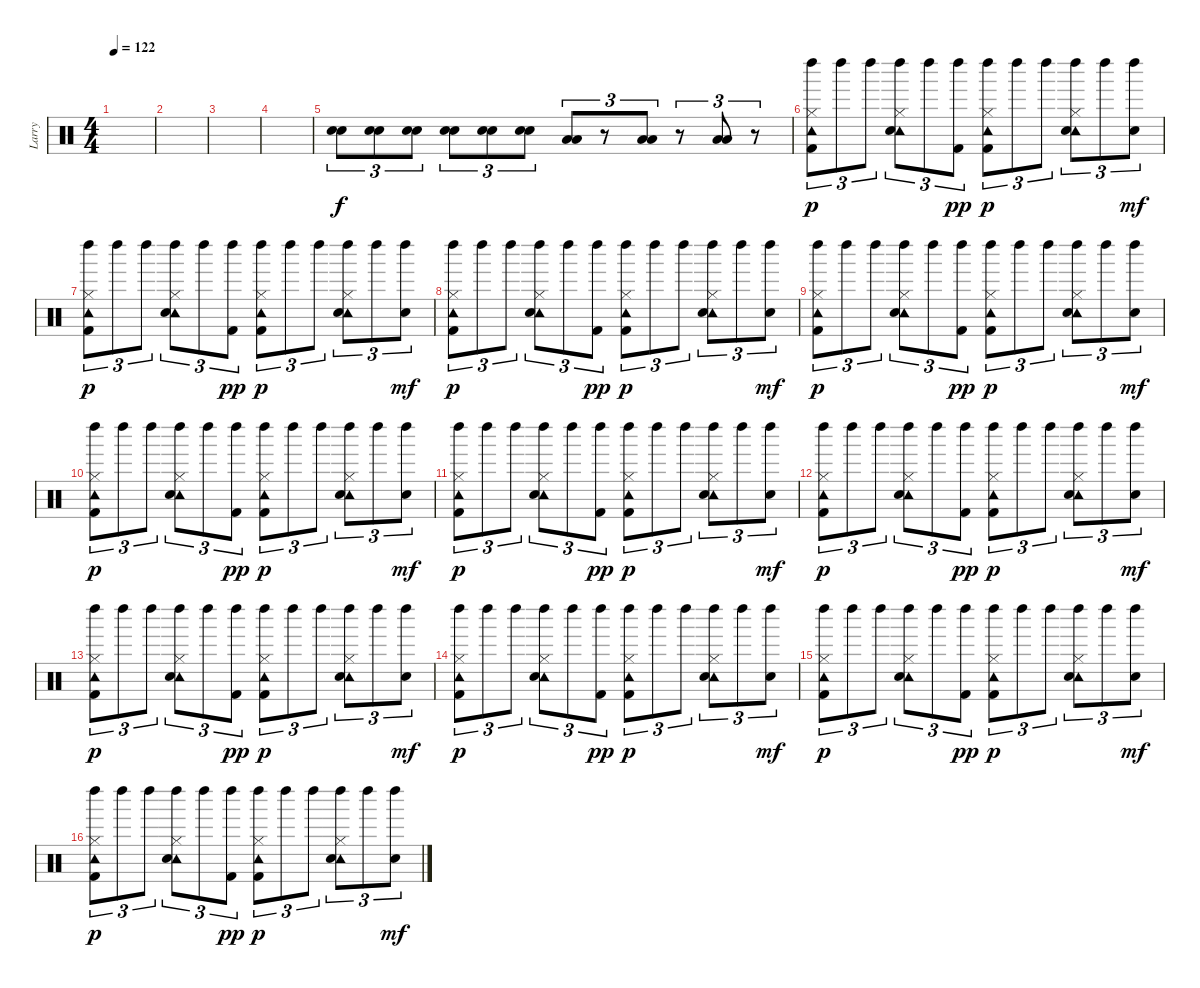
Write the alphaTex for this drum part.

\track ("Larry" "Larry") {instrument percussion}
\staff {score}
\articulation defaults
\ts (4 4)
\tempo 122
\clef neutral
\ks c
|
|
|
|
("Electric Snare (hit)" "Snare (hit) 2").8{tu (3 2) dy f volume 16} ("Electric Snare (hit)" "Snare (hit) 2").8{tu (3 2)} ("Electric Snare (hit)" "Snare (hit) 2").8{tu (3 2)} ("Electric Snare (hit)" "Snare (hit) 2").8{tu (3 2)} ("Electric Snare (hit)" "Snare (hit) 2").8{tu (3 2)} ("Electric Snare (hit)" "Snare (hit) 2").8{tu (3 2)} ("Low Tom (hit)" "Low Tom (hit)").8{tu (3 2)} r.8{tu (3 2)} ("Low Tom (hit)" "Low Tom (hit)").8{tu (3 2)} r.8{tu (3 2)} ("Low Tom (hit)" "Low Tom (hit)").8{tu (3 2)} r.8{tu (3 2)} |
("Left Maraca (hit)" "Tambourine (hit)" "Hi-Hat (closed)" "Kick (hit) 2").8{tu (3 2) dy p} "Left Maraca (hit)".8{tu (3 2)} "Left Maraca (hit)".8{tu (3 2)} ("Left Maraca (hit)" "Tambourine (hit)" "Hi-Hat (closed)" "Snare (hit) 2").8{tu (3 2)} "Left Maraca (hit)".8{tu (3 2)} ("Left Maraca (hit)" "Kick (hit) 2").8{tu (3 2) dy pp} ("Left Maraca (hit)" "Tambourine (hit)" "Hi-Hat (closed)" "Kick (hit) 2").8{tu (3 2) dy p} "Left Maraca (hit)".8{tu (3 2)} "Left Maraca (hit)".8{tu (3 2)} ("Left Maraca (hit)" "Tambourine (hit)" "Hi-Hat (closed)" "Snare (hit) 2").8{tu (3 2)} "Left Maraca (hit)".8{tu (3 2)} ("Left Maraca (hit)" "Snare (hit) 2").8{tu (3 2) dy mf} |
("Left Maraca (hit)" "Tambourine (hit)" "Hi-Hat (closed)" "Kick (hit) 2").8{tu (3 2) dy p} "Left Maraca (hit)".8{tu (3 2)} "Left Maraca (hit)".8{tu (3 2)} ("Left Maraca (hit)" "Tambourine (hit)" "Hi-Hat (closed)" "Snare (hit) 2").8{tu (3 2)} "Left Maraca (hit)".8{tu (3 2)} ("Left Maraca (hit)" "Kick (hit) 2").8{tu (3 2) dy pp} ("Left Maraca (hit)" "Tambourine (hit)" "Hi-Hat (closed)" "Kick (hit) 2").8{tu (3 2) dy p} "Left Maraca (hit)".8{tu (3 2)} "Left Maraca (hit)".8{tu (3 2)} ("Left Maraca (hit)" "Tambourine (hit)" "Hi-Hat (closed)" "Snare (hit) 2").8{tu (3 2)} "Left Maraca (hit)".8{tu (3 2)} ("Left Maraca (hit)" "Snare (hit) 2").8{tu (3 2) dy mf} |
("Left Maraca (hit)" "Tambourine (hit)" "Hi-Hat (closed)" "Kick (hit) 2").8{tu (3 2) dy p} "Left Maraca (hit)".8{tu (3 2)} "Left Maraca (hit)".8{tu (3 2)} ("Left Maraca (hit)" "Tambourine (hit)" "Hi-Hat (closed)" "Snare (hit) 2").8{tu (3 2)} "Left Maraca (hit)".8{tu (3 2)} ("Left Maraca (hit)" "Kick (hit) 2").8{tu (3 2) dy pp} ("Left Maraca (hit)" "Tambourine (hit)" "Hi-Hat (closed)" "Kick (hit) 2").8{tu (3 2) dy p} "Left Maraca (hit)".8{tu (3 2)} "Left Maraca (hit)".8{tu (3 2)} ("Left Maraca (hit)" "Tambourine (hit)" "Hi-Hat (closed)" "Snare (hit) 2").8{tu (3 2)} "Left Maraca (hit)".8{tu (3 2)} ("Left Maraca (hit)" "Snare (hit) 2").8{tu (3 2) dy mf} |
("Left Maraca (hit)" "Tambourine (hit)" "Hi-Hat (closed)" "Kick (hit) 2").8{tu (3 2) dy p} "Left Maraca (hit)".8{tu (3 2)} "Left Maraca (hit)".8{tu (3 2)} ("Left Maraca (hit)" "Tambourine (hit)" "Hi-Hat (closed)" "Snare (hit) 2").8{tu (3 2)} "Left Maraca (hit)".8{tu (3 2)} ("Left Maraca (hit)" "Kick (hit) 2").8{tu (3 2) dy pp} ("Left Maraca (hit)" "Tambourine (hit)" "Hi-Hat (closed)" "Kick (hit) 2").8{tu (3 2) dy p} "Left Maraca (hit)".8{tu (3 2)} "Left Maraca (hit)".8{tu (3 2)} ("Left Maraca (hit)" "Tambourine (hit)" "Hi-Hat (closed)" "Snare (hit) 2").8{tu (3 2)} "Left Maraca (hit)".8{tu (3 2)} ("Left Maraca (hit)" "Snare (hit) 2").8{tu (3 2) dy mf} |
("Left Maraca (hit)" "Tambourine (hit)" "Hi-Hat (closed)" "Kick (hit) 2").8{tu (3 2) dy p} "Left Maraca (hit)".8{tu (3 2)} "Left Maraca (hit)".8{tu (3 2)} ("Left Maraca (hit)" "Tambourine (hit)" "Hi-Hat (closed)" "Snare (hit) 2").8{tu (3 2)} "Left Maraca (hit)".8{tu (3 2)} ("Left Maraca (hit)" "Kick (hit) 2").8{tu (3 2) dy pp} ("Left Maraca (hit)" "Tambourine (hit)" "Hi-Hat (closed)" "Kick (hit) 2").8{tu (3 2) dy p} "Left Maraca (hit)".8{tu (3 2)} "Left Maraca (hit)".8{tu (3 2)} ("Left Maraca (hit)" "Tambourine (hit)" "Hi-Hat (closed)" "Snare (hit) 2").8{tu (3 2)} "Left Maraca (hit)".8{tu (3 2)} ("Left Maraca (hit)" "Snare (hit) 2").8{tu (3 2) dy mf} |
("Left Maraca (hit)" "Tambourine (hit)" "Hi-Hat (closed)" "Kick (hit) 2").8{tu (3 2) dy p} "Left Maraca (hit)".8{tu (3 2)} "Left Maraca (hit)".8{tu (3 2)} ("Left Maraca (hit)" "Tambourine (hit)" "Hi-Hat (closed)" "Snare (hit) 2").8{tu (3 2)} "Left Maraca (hit)".8{tu (3 2)} ("Left Maraca (hit)" "Kick (hit) 2").8{tu (3 2) dy pp} ("Left Maraca (hit)" "Tambourine (hit)" "Hi-Hat (closed)" "Kick (hit) 2").8{tu (3 2) dy p} "Left Maraca (hit)".8{tu (3 2)} "Left Maraca (hit)".8{tu (3 2)} ("Left Maraca (hit)" "Tambourine (hit)" "Hi-Hat (closed)" "Snare (hit) 2").8{tu (3 2)} "Left Maraca (hit)".8{tu (3 2)} ("Left Maraca (hit)" "Snare (hit) 2").8{tu (3 2) dy mf} |
("Left Maraca (hit)" "Tambourine (hit)" "Hi-Hat (closed)" "Kick (hit) 2").8{tu (3 2) dy p} "Left Maraca (hit)".8{tu (3 2)} "Left Maraca (hit)".8{tu (3 2)} ("Left Maraca (hit)" "Tambourine (hit)" "Hi-Hat (closed)" "Snare (hit) 2").8{tu (3 2)} "Left Maraca (hit)".8{tu (3 2)} ("Left Maraca (hit)" "Kick (hit) 2").8{tu (3 2) dy pp} ("Left Maraca (hit)" "Tambourine (hit)" "Hi-Hat (closed)" "Kick (hit) 2").8{tu (3 2) dy p} "Left Maraca (hit)".8{tu (3 2)} "Left Maraca (hit)".8{tu (3 2)} ("Left Maraca (hit)" "Tambourine (hit)" "Hi-Hat (closed)" "Snare (hit) 2").8{tu (3 2)} "Left Maraca (hit)".8{tu (3 2)} ("Left Maraca (hit)" "Snare (hit) 2").8{tu (3 2) dy mf} |
("Left Maraca (hit)" "Tambourine (hit)" "Hi-Hat (closed)" "Kick (hit) 2").8{tu (3 2) dy p} "Left Maraca (hit)".8{tu (3 2)} "Left Maraca (hit)".8{tu (3 2)} ("Left Maraca (hit)" "Tambourine (hit)" "Hi-Hat (closed)" "Snare (hit) 2").8{tu (3 2)} "Left Maraca (hit)".8{tu (3 2)} ("Left Maraca (hit)" "Kick (hit) 2").8{tu (3 2) dy pp} ("Left Maraca (hit)" "Tambourine (hit)" "Hi-Hat (closed)" "Kick (hit) 2").8{tu (3 2) dy p} "Left Maraca (hit)".8{tu (3 2)} "Left Maraca (hit)".8{tu (3 2)} ("Left Maraca (hit)" "Tambourine (hit)" "Hi-Hat (closed)" "Snare (hit) 2").8{tu (3 2)} "Left Maraca (hit)".8{tu (3 2)} ("Left Maraca (hit)" "Snare (hit) 2").8{tu (3 2) dy mf} |
("Left Maraca (hit)" "Tambourine (hit)" "Hi-Hat (closed)" "Kick (hit) 2").8{tu (3 2) dy p} "Left Maraca (hit)".8{tu (3 2)} "Left Maraca (hit)".8{tu (3 2)} ("Left Maraca (hit)" "Tambourine (hit)" "Hi-Hat (closed)" "Snare (hit) 2").8{tu (3 2)} "Left Maraca (hit)".8{tu (3 2)} ("Left Maraca (hit)" "Kick (hit) 2").8{tu (3 2) dy pp} ("Left Maraca (hit)" "Tambourine (hit)" "Hi-Hat (closed)" "Kick (hit) 2").8{tu (3 2) dy p} "Left Maraca (hit)".8{tu (3 2)} "Left Maraca (hit)".8{tu (3 2)} ("Left Maraca (hit)" "Tambourine (hit)" "Hi-Hat (closed)" "Snare (hit) 2").8{tu (3 2)} "Left Maraca (hit)".8{tu (3 2)} ("Left Maraca (hit)" "Snare (hit) 2").8{tu (3 2) dy mf} |
("Left Maraca (hit)" "Tambourine (hit)" "Hi-Hat (closed)" "Kick (hit) 2").8{tu (3 2) dy p} "Left Maraca (hit)".8{tu (3 2)} "Left Maraca (hit)".8{tu (3 2)} ("Left Maraca (hit)" "Tambourine (hit)" "Hi-Hat (closed)" "Snare (hit) 2").8{tu (3 2)} "Left Maraca (hit)".8{tu (3 2)} ("Left Maraca (hit)" "Kick (hit) 2").8{tu (3 2) dy pp} ("Left Maraca (hit)" "Tambourine (hit)" "Hi-Hat (closed)" "Kick (hit) 2").8{tu (3 2) dy p} "Left Maraca (hit)".8{tu (3 2)} "Left Maraca (hit)".8{tu (3 2)} ("Left Maraca (hit)" "Tambourine (hit)" "Hi-Hat (closed)" "Snare (hit) 2").8{tu (3 2)} "Left Maraca (hit)".8{tu (3 2)} ("Left Maraca (hit)" "Snare (hit) 2").8{tu (3 2) dy mf} |
("Left Maraca (hit)" "Tambourine (hit)" "Hi-Hat (closed)" "Kick (hit) 2").8{tu (3 2) dy p} "Left Maraca (hit)".8{tu (3 2)} "Left Maraca (hit)".8{tu (3 2)} ("Left Maraca (hit)" "Tambourine (hit)" "Hi-Hat (closed)" "Snare (hit) 2").8{tu (3 2)} "Left Maraca (hit)".8{tu (3 2)} ("Left Maraca (hit)" "Kick (hit) 2").8{tu (3 2) dy pp} ("Left Maraca (hit)" "Tambourine (hit)" "Hi-Hat (closed)" "Kick (hit) 2").8{tu (3 2) dy p} "Left Maraca (hit)".8{tu (3 2)} "Left Maraca (hit)".8{tu (3 2)} ("Left Maraca (hit)" "Tambourine (hit)" "Hi-Hat (closed)" "Snare (hit) 2").8{tu (3 2)} "Left Maraca (hit)".8{tu (3 2)} ("Left Maraca (hit)" "Snare (hit) 2").8{tu (3 2) dy mf}
